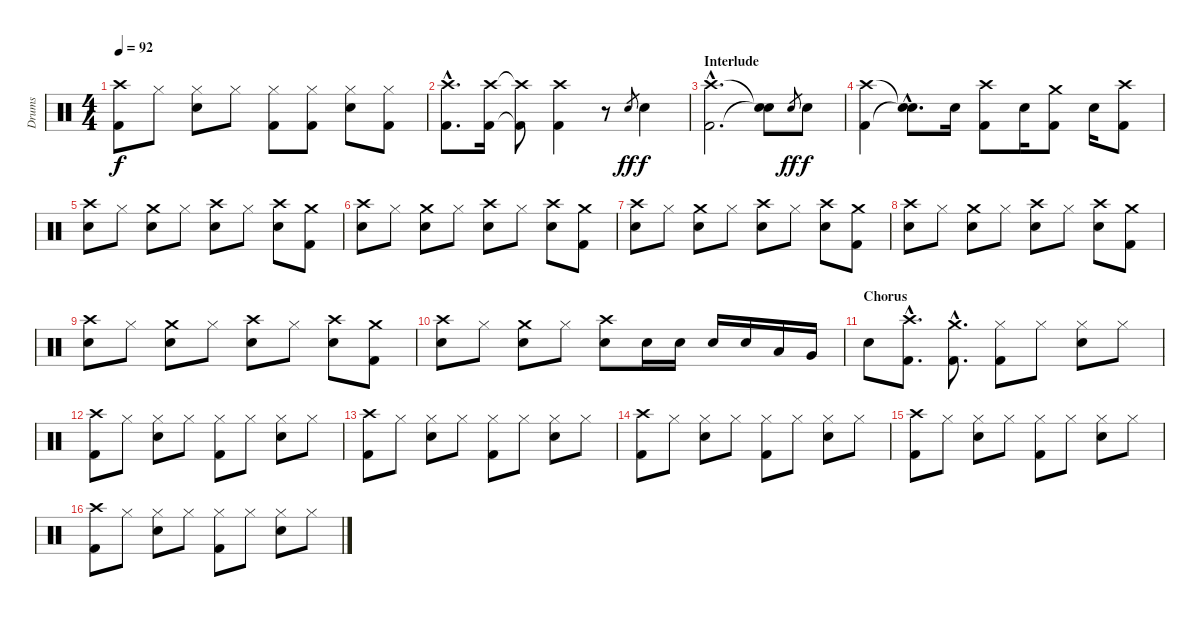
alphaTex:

\track ("Drums" "Drums") {instrument percussion}
\staff {score}
\articulation defaults
\ts (4 4)
\tempo 92
\clef neutral
\ks c
("Crash high (hit)" "Kick (hit) 2").8{dy f} "Hi-Hat (closed)".8 ("Hi-Hat (closed)" "Snare (hit) 2").8 "Hi-Hat (closed)".8 ("Hi-Hat (closed)" "Kick (hit) 2").8 ("Hi-Hat (closed)" "Kick (hit) 2").8 ("Hi-Hat (closed)" "Snare (hit) 2").8 ("Hi-Hat (closed)" "Kick (hit) 2").8 |
("Crash high (hit)"{hac} "Kick (hit) 2"{hac}).8{d} ("Crash high (hit)" "Kick (hit) 2").16 ("Crash high (hit)"{t} "Kick (hit) 2"{t}).8 ("Crash high (hit)" "Kick (hit) 2").4 r.8 "Snare (hit) 2".8{gr dy ff} "Snare (hit) 2".4{dy f} |
\section ("" "Interlude")
("Crash high (hit)"{hac} "Kick (hit) 2"{hac}).2{d} ("Snare (hit)"{t} "Snare (hit)"{t}).8 "Snare (hit) 2".8{gr dy ff} "Snare (hit) 2".8{dy f} |
("Crash high (hit)" "Kick (hit) 2").4 ("Snare (hit)"{hac t} "Snare (hit)"{hac t}).8{d} "Snare (hit) 2".16 ("Crash high (hit)" "Kick (hit) 2").8 "Snare (hit) 2".16 ("Crash medium (hit)" "Kick (hit) 2").8 "Snare (hit) 2".16 ("Crash high (hit)" "Kick (hit) 2").8 |
("Crash high (hit)" "Snare (hit) 2").8 "Hi-Hat (closed)".8 ("Crash medium (hit)" "Snare (hit) 2").8 "Hi-Hat (closed)".8 ("Crash high (hit)" "Snare (hit) 2").8 "Hi-Hat (closed)".8 ("Crash high (hit)" "Snare (hit) 2").8 ("Crash medium (hit)" "Kick (hit) 2").8 |
("Crash high (hit)" "Snare (hit) 2").8 "Hi-Hat (closed)".8 ("Crash medium (hit)" "Snare (hit) 2").8 "Hi-Hat (closed)".8 ("Crash high (hit)" "Snare (hit) 2").8 "Hi-Hat (closed)".8 ("Crash high (hit)" "Snare (hit) 2").8 ("Crash medium (hit)" "Kick (hit) 2").8 |
("Crash high (hit)" "Snare (hit) 2").8 "Hi-Hat (closed)".8 ("Crash medium (hit)" "Snare (hit) 2").8 "Hi-Hat (closed)".8 ("Crash high (hit)" "Snare (hit) 2").8 "Hi-Hat (closed)".8 ("Crash high (hit)" "Snare (hit) 2").8 ("Crash medium (hit)" "Kick (hit) 2").8 |
("Crash high (hit)" "Snare (hit) 2").8 "Hi-Hat (closed)".8 ("Crash medium (hit)" "Snare (hit) 2").8 "Hi-Hat (closed)".8 ("Crash high (hit)" "Snare (hit) 2").8 "Hi-Hat (closed)".8 ("Crash high (hit)" "Snare (hit) 2").8 ("Crash medium (hit)" "Kick (hit) 2").8 |
("Crash high (hit)" "Snare (hit) 2").8 "Hi-Hat (closed)".8 ("Crash medium (hit)" "Snare (hit) 2").8 "Hi-Hat (closed)".8 ("Crash high (hit)" "Snare (hit) 2").8 "Hi-Hat (closed)".8 ("Crash high (hit)" "Snare (hit) 2").8 ("Crash medium (hit)" "Kick (hit) 2").8 |
("Crash high (hit)" "Snare (hit) 2").8 "Hi-Hat (closed)".8 ("Crash medium (hit)" "Snare (hit) 2").8 "Hi-Hat (closed)".8 ("Crash high (hit)" "Snare (hit) 2").8 "Snare (hit) 2".16 "Snare (hit) 2".16 "Snare (hit) 2".16 "Snare (hit) 2".16 "Low Tom (hit)".16 "Very Low Tom (hit)".16 |
\section ("" "Chorus")
"Snare (hit) 2".8 ("Crash high (hit)"{hac} "Kick (hit) 2"{hac}).8{d} ("Crash medium (hit)"{hac} "Kick (hit) 2"{hac}).8{d} ("Hi-Hat (closed)" "Kick (hit) 2").8 "Hi-Hat (closed)".8 ("Hi-Hat (closed)" "Snare (hit) 2").8 "Hi-Hat (closed)".8 |
("Crash high (hit)" "Kick (hit) 2").8 "Hi-Hat (closed)".8 ("Hi-Hat (closed)" "Snare (hit) 2").8 "Hi-Hat (closed)".8 ("Hi-Hat (closed)" "Kick (hit) 2").8 "Hi-Hat (closed)".8 ("Hi-Hat (closed)" "Snare (hit) 2").8 "Hi-Hat (closed)".8 |
("Crash high (hit)" "Kick (hit) 2").8 "Hi-Hat (closed)".8 ("Hi-Hat (closed)" "Snare (hit) 2").8 "Hi-Hat (closed)".8 ("Hi-Hat (closed)" "Kick (hit) 2").8 "Hi-Hat (closed)".8 ("Hi-Hat (closed)" "Snare (hit) 2").8 "Hi-Hat (closed)".8 |
("Crash high (hit)" "Kick (hit) 2").8 "Hi-Hat (closed)".8 ("Hi-Hat (closed)" "Snare (hit) 2").8 "Hi-Hat (closed)".8 ("Hi-Hat (closed)" "Kick (hit) 2").8 "Hi-Hat (closed)".8 ("Hi-Hat (closed)" "Snare (hit) 2").8 "Hi-Hat (closed)".8 |
("Crash high (hit)" "Kick (hit) 2").8 "Hi-Hat (closed)".8 ("Hi-Hat (closed)" "Snare (hit) 2").8 "Hi-Hat (closed)".8 ("Hi-Hat (closed)" "Kick (hit) 2").8 "Hi-Hat (closed)".8 ("Hi-Hat (closed)" "Snare (hit) 2").8 "Hi-Hat (closed)".8 |
("Crash high (hit)" "Kick (hit) 2").8 "Hi-Hat (closed)".8 ("Hi-Hat (closed)" "Snare (hit) 2").8 "Hi-Hat (closed)".8 ("Hi-Hat (closed)" "Kick (hit) 2").8 "Hi-Hat (closed)".8 ("Hi-Hat (closed)" "Snare (hit) 2").8 "Hi-Hat (closed)".8
